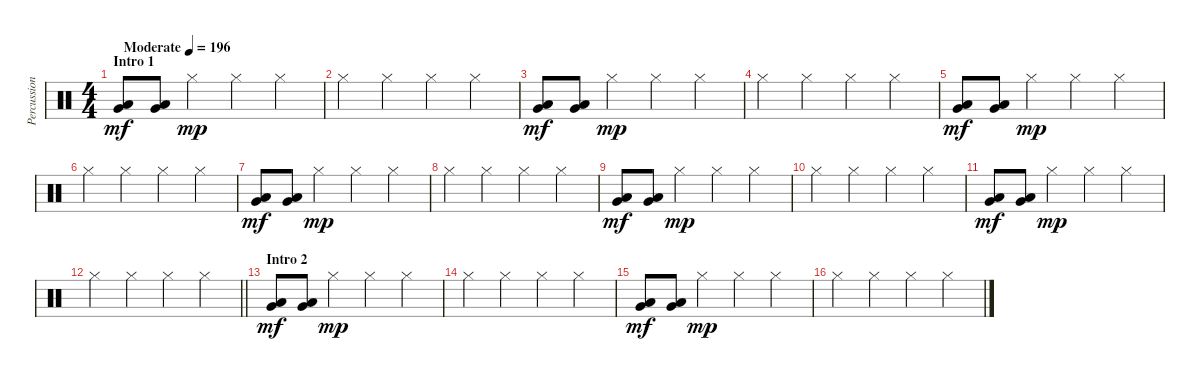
\track ("Percussion" "Percussion") {instrument percussion}
\staff {score}
\articulation defaults
\ts (4 4)
\section ("" "Intro 1")
\tempo (196 "Moderate")
\clef neutral
\ks c
("Very Low Tom (hit)" "Low Floor Tom (hit)").8{dy mf} ("Very Low Tom (hit)" "Low Floor Tom (hit)").8 "Hi-Hat (closed)".4{dy mp} "Hi-Hat (closed)".4 "Hi-Hat (closed)".4 |
"Hi-Hat (closed)".4 "Hi-Hat (closed)".4 "Hi-Hat (closed)".4 "Hi-Hat (closed)".4 |
("Very Low Tom (hit)" "Low Floor Tom (hit)").8{dy mf} ("Very Low Tom (hit)" "Low Floor Tom (hit)").8 "Hi-Hat (closed)".4{dy mp} "Hi-Hat (closed)".4 "Hi-Hat (closed)".4 |
"Hi-Hat (closed)".4 "Hi-Hat (closed)".4 "Hi-Hat (closed)".4 "Hi-Hat (closed)".4 |
("Very Low Tom (hit)" "Low Floor Tom (hit)").8{dy mf} ("Very Low Tom (hit)" "Low Floor Tom (hit)").8 "Hi-Hat (closed)".4{dy mp} "Hi-Hat (closed)".4 "Hi-Hat (closed)".4 |
"Hi-Hat (closed)".4 "Hi-Hat (closed)".4 "Hi-Hat (closed)".4 "Hi-Hat (closed)".4 |
("Very Low Tom (hit)" "Low Floor Tom (hit)").8{dy mf} ("Very Low Tom (hit)" "Low Floor Tom (hit)").8 "Hi-Hat (closed)".4{dy mp} "Hi-Hat (closed)".4 "Hi-Hat (closed)".4 |
"Hi-Hat (closed)".4 "Hi-Hat (closed)".4 "Hi-Hat (closed)".4 "Hi-Hat (closed)".4 |
("Very Low Tom (hit)" "Low Floor Tom (hit)").8{dy mf} ("Very Low Tom (hit)" "Low Floor Tom (hit)").8 "Hi-Hat (closed)".4{dy mp} "Hi-Hat (closed)".4 "Hi-Hat (closed)".4 |
"Hi-Hat (closed)".4 "Hi-Hat (closed)".4 "Hi-Hat (closed)".4 "Hi-Hat (closed)".4 |
("Very Low Tom (hit)" "Low Floor Tom (hit)").8{dy mf} ("Very Low Tom (hit)" "Low Floor Tom (hit)").8 "Hi-Hat (closed)".4{dy mp} "Hi-Hat (closed)".4 "Hi-Hat (closed)".4 |
\barLineRight lightlight "Hi-Hat (closed)".4 "Hi-Hat (closed)".4 "Hi-Hat (closed)".4 "Hi-Hat (closed)".4
|
\section ("" "Intro 2")
("Very Low Tom (hit)" "Low Floor Tom (hit)").8{dy mf} ("Very Low Tom (hit)" "Low Floor Tom (hit)").8 "Hi-Hat (closed)".4{dy mp} "Hi-Hat (closed)".4 "Hi-Hat (closed)".4 |
"Hi-Hat (closed)".4 "Hi-Hat (closed)".4 "Hi-Hat (closed)".4 "Hi-Hat (closed)".4 |
("Very Low Tom (hit)" "Low Floor Tom (hit)").8{dy mf} ("Very Low Tom (hit)" "Low Floor Tom (hit)").8 "Hi-Hat (closed)".4{dy mp} "Hi-Hat (closed)".4 "Hi-Hat (closed)".4 |
"Hi-Hat (closed)".4 "Hi-Hat (closed)".4 "Hi-Hat (closed)".4 "Hi-Hat (closed)".4
